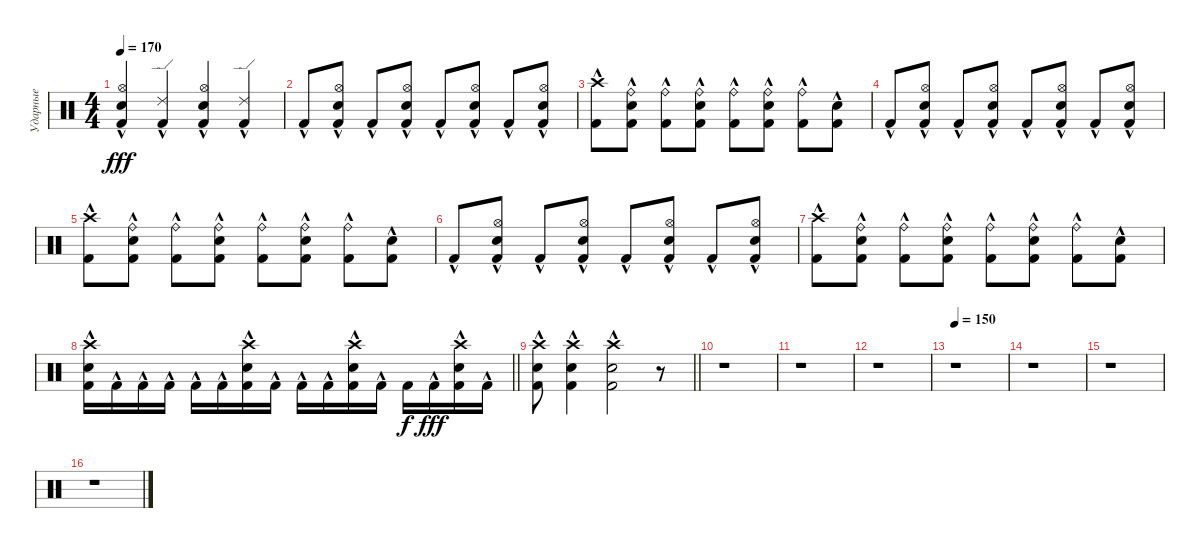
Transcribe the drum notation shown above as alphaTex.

\track ("Ударные" "Ударные") {instrument percussion}
\staff {score}
\articulation defaults
\ts (4 4)
\tempo 170
\clef neutral
\ks c
("Kick (hit) 2"{hac} "Hi-Hat (open)" "Snare (hit) 2").4{dy fff} ("Kick (hit) 2"{hac} "Ride (edge) 2").4 ("Kick (hit) 2"{hac} "Hi-Hat (open)" "Snare (hit) 2").4 ("Kick (hit) 2"{hac} "Ride (edge) 2").4 |
"Kick (hit) 2"{hac}.8 ("Kick (hit) 2"{hac} "Hi-Hat (open)" "Snare (hit) 2").8 "Kick (hit) 2"{hac}.8 ("Kick (hit) 2"{hac} "Hi-Hat (open)" "Snare (hit) 2").8 "Kick (hit) 2"{hac}.8 ("Kick (hit) 2"{hac} "Hi-Hat (open)" "Snare (hit) 2").8 "Kick (hit) 2"{hac}.8 ("Kick (hit) 2"{hac} "Hi-Hat (open)" "Snare (hit) 2").8 |
("Kick (hit) 2"{hac} "Crash high (hit)").8 ("Kick (hit) 2"{hac} "Ride (bell)" "Snare (hit) 2").8 ("Kick (hit) 2"{hac} "Ride (bell)").8 ("Kick (hit) 2"{hac} "Ride (bell)" "Snare (hit) 2").8 ("Kick (hit) 2"{hac} "Ride (bell)").8 ("Kick (hit) 2"{hac} "Ride (bell)" "Snare (hit) 2").8 ("Kick (hit) 2"{hac} "Ride (bell)").8 ("Kick (hit) 2"{hac} "Snare (hit) 2").8 |
"Kick (hit) 2"{hac}.8 ("Kick (hit) 2"{hac} "Hi-Hat (open)" "Snare (hit) 2").8 "Kick (hit) 2"{hac}.8 ("Kick (hit) 2"{hac} "Hi-Hat (open)" "Snare (hit) 2").8 "Kick (hit) 2"{hac}.8 ("Kick (hit) 2"{hac} "Hi-Hat (open)" "Snare (hit) 2").8 "Kick (hit) 2"{hac}.8 ("Kick (hit) 2"{hac} "Hi-Hat (open)" "Snare (hit) 2").8 |
("Kick (hit) 2"{hac} "Crash high (hit)").8 ("Kick (hit) 2"{hac} "Ride (bell)" "Snare (hit) 2").8 ("Kick (hit) 2"{hac} "Ride (bell)").8 ("Kick (hit) 2"{hac} "Ride (bell)" "Snare (hit) 2").8 ("Kick (hit) 2"{hac} "Ride (bell)").8 ("Kick (hit) 2"{hac} "Ride (bell)" "Snare (hit) 2").8 ("Kick (hit) 2"{hac} "Ride (bell)").8 ("Kick (hit) 2"{hac} "Snare (hit) 2").8 |
"Kick (hit) 2"{hac}.8 ("Kick (hit) 2"{hac} "Hi-Hat (open)" "Snare (hit) 2").8 "Kick (hit) 2"{hac}.8 ("Kick (hit) 2"{hac} "Hi-Hat (open)" "Snare (hit) 2").8 "Kick (hit) 2"{hac}.8 ("Kick (hit) 2"{hac} "Hi-Hat (open)" "Snare (hit) 2").8 "Kick (hit) 2"{hac}.8 ("Kick (hit) 2"{hac} "Hi-Hat (open)" "Snare (hit) 2").8 |
("Kick (hit) 2"{hac} "Crash high (hit)").8 ("Kick (hit) 2"{hac} "Ride (bell)" "Snare (hit) 2").8 ("Kick (hit) 2"{hac} "Ride (bell)").8 ("Kick (hit) 2"{hac} "Ride (bell)" "Snare (hit) 2").8 ("Kick (hit) 2"{hac} "Ride (bell)").8 ("Kick (hit) 2"{hac} "Ride (bell)" "Snare (hit) 2").8 ("Kick (hit) 2"{hac} "Ride (bell)").8 ("Kick (hit) 2"{hac} "Snare (hit) 2").8 |
\barLineRight lightlight
("Kick (hit) 2"{hac} "Snare (hit) 2" "Crash high (hit)").16 "Kick (hit) 2"{hac}.16 "Kick (hit) 2"{hac}.16 "Kick (hit) 2"{hac}.16 "Kick (hit) 2"{hac}.16 "Kick (hit) 2"{hac}.16 ("Kick (hit) 2"{hac} "Snare (hit) 2" "Crash high (hit)").16 "Kick (hit) 2"{hac}.16 "Kick (hit) 2"{hac}.16 "Kick (hit) 2"{hac}.16 ("Kick (hit) 2"{hac} "Snare (hit) 2" "Crash high (hit)").16 "Kick (hit) 2"{hac}.16 "Kick (hit) 2".16{dy f} "Kick (hit) 2"{hac}.16{dy fff} ("Kick (hit) 2"{hac} "Snare (hit) 2" "Crash high (hit)").16 "Kick (hit) 2"{hac}.16 |
\barLineRight lightlight
("Kick (hit) 2"{hac} "Snare (hit) 2" "Crash high (hit)").8 ("Kick (hit) 2"{hac} "Snare (hit) 2" "Crash high (hit)").4 ("Kick (hit) 2"{hac} "Snare (hit) 2" "Crash high (hit)").2 r.8 |
r.1 |
r.1 |
r.1 |
\tempo 150
r.1 |
r.1 |
r.1 |
r.1
